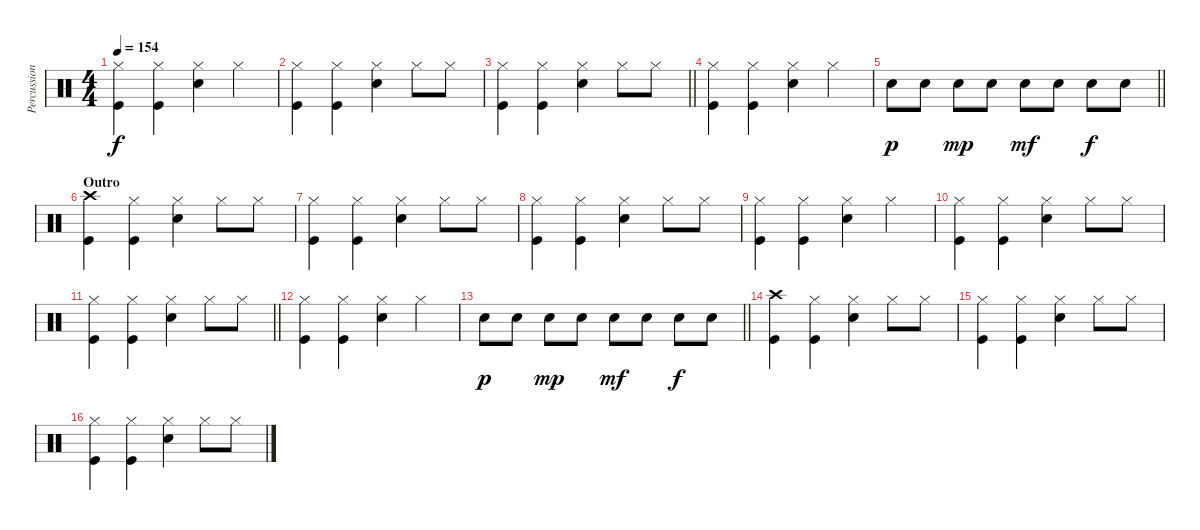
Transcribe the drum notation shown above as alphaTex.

\track ("Percussion" "Percussion") {instrument percussion}
\staff {score}
\articulation defaults
\ts (4 4)
\tempo 154
\clef neutral
\ks c
("Hi-Hat (closed)" "Kick (hit)").4{dy f} ("Hi-Hat (closed)" "Kick (hit)").4 ("Hi-Hat (closed)" "Snare (hit) 2").4 "Hi-Hat (closed)".4 |
("Hi-Hat (closed)" "Kick (hit)").4 ("Hi-Hat (closed)" "Kick (hit)").4 ("Hi-Hat (closed)" "Snare (hit) 2").4 "Hi-Hat (closed)".8 "Hi-Hat (closed)".8 |
\barLineRight lightlight
("Hi-Hat (closed)" "Kick (hit)").4 ("Hi-Hat (closed)" "Kick (hit)").4 ("Hi-Hat (closed)" "Snare (hit) 2").4 "Hi-Hat (closed)".8 "Hi-Hat (closed)".8 |
("Hi-Hat (closed)" "Kick (hit)").4 ("Hi-Hat (closed)" "Kick (hit)").4 ("Hi-Hat (closed)" "Snare (hit) 2").4 "Hi-Hat (closed)".4 |
\barLineRight lightlight "Snare (hit) 2".8{dy p} "Snare (hit) 2".8 "Snare (hit) 2".8{dy mp} "Electric Snare (hit)".8 "Electric Snare (hit)".8{dy mf} "Electric Snare (hit)".8 "Snare (hit) 2".8{dy f} "Snare (hit) 2".8
|
\section ("" "Outro")
("Crash high (hit)" "Kick (hit)").4 ("Hi-Hat (closed)" "Kick (hit)").4 ("Hi-Hat (closed)" "Snare (hit) 2").4 "Hi-Hat (closed)".8 "Hi-Hat (closed)".8 |
("Hi-Hat (closed)" "Kick (hit)").4 ("Hi-Hat (closed)" "Kick (hit)").4 ("Hi-Hat (closed)" "Snare (hit) 2").4 "Hi-Hat (closed)".8 "Hi-Hat (closed)".8 |
("Hi-Hat (closed)" "Kick (hit)").4 ("Hi-Hat (closed)" "Kick (hit)").4 ("Hi-Hat (closed)" "Snare (hit) 2").4 "Hi-Hat (closed)".8 "Hi-Hat (closed)".8 |
("Hi-Hat (closed)" "Kick (hit)").4 ("Hi-Hat (closed)" "Kick (hit)").4 ("Hi-Hat (closed)" "Snare (hit) 2").4 "Hi-Hat (closed)".4 |
("Hi-Hat (closed)" "Kick (hit)").4 ("Hi-Hat (closed)" "Kick (hit)").4 ("Hi-Hat (closed)" "Snare (hit) 2").4 "Hi-Hat (closed)".8 "Hi-Hat (closed)".8 |
\barLineRight lightlight
("Hi-Hat (closed)" "Kick (hit)").4 ("Hi-Hat (closed)" "Kick (hit)").4 ("Hi-Hat (closed)" "Snare (hit) 2").4 "Hi-Hat (closed)".8 "Hi-Hat (closed)".8 |
("Hi-Hat (closed)" "Kick (hit)").4 ("Hi-Hat (closed)" "Kick (hit)").4 ("Hi-Hat (closed)" "Snare (hit) 2").4 "Hi-Hat (closed)".4 |
\barLineRight lightlight "Snare (hit) 2".8{dy p} "Snare (hit) 2".8 "Snare (hit) 2".8{dy mp} "Electric Snare (hit)".8 "Electric Snare (hit)".8{dy mf} "Electric Snare (hit)".8 "Snare (hit) 2".8{dy f} "Snare (hit) 2".8
|
("Crash high (hit)" "Kick (hit)").4 ("Hi-Hat (closed)" "Kick (hit)").4 ("Hi-Hat (closed)" "Snare (hit) 2").4 "Hi-Hat (closed)".8 "Hi-Hat (closed)".8 |
("Hi-Hat (closed)" "Kick (hit)").4 ("Hi-Hat (closed)" "Kick (hit)").4 ("Hi-Hat (closed)" "Snare (hit) 2").4 "Hi-Hat (closed)".8 "Hi-Hat (closed)".8 |
("Hi-Hat (closed)" "Kick (hit)").4 ("Hi-Hat (closed)" "Kick (hit)").4 ("Hi-Hat (closed)" "Snare (hit) 2").4 "Hi-Hat (closed)".8 "Hi-Hat (closed)".8
